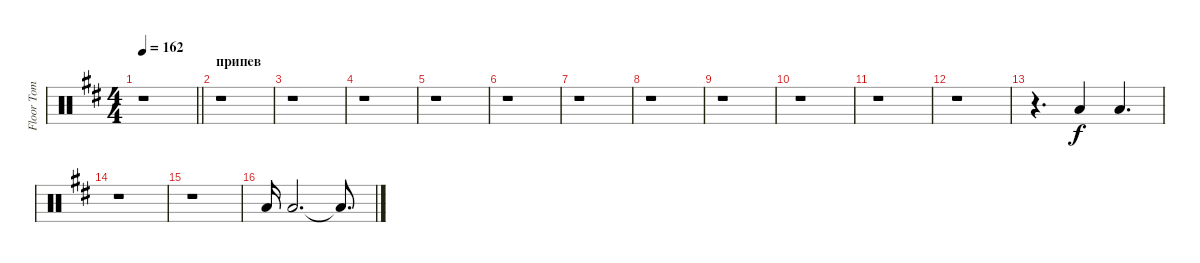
\track ("Floor Tom" "Floor Tom") {instrument percussion}
\staff {score}
\articulation defaults
\ts (4 4)
\tempo 162
\clef neutral
\barLineRight lightlight
\ks bminor
r.1{dy f} |
\section ("" "припев")
r.1 |
r.1 |
r.1 |
r.1 |
r.1 |
r.1 |
r.1 |
r.1 |
r.1 |
r.1 |
r.1 |
r.4{d} "Low Tom (hit)".4 "Low Tom (hit)".4{d} |
r.1 |
r.1 |
"Low Tom (hit)".16 "Low Tom (hit)".2{d} "Low Tom (hit)"{t}.8{d}
